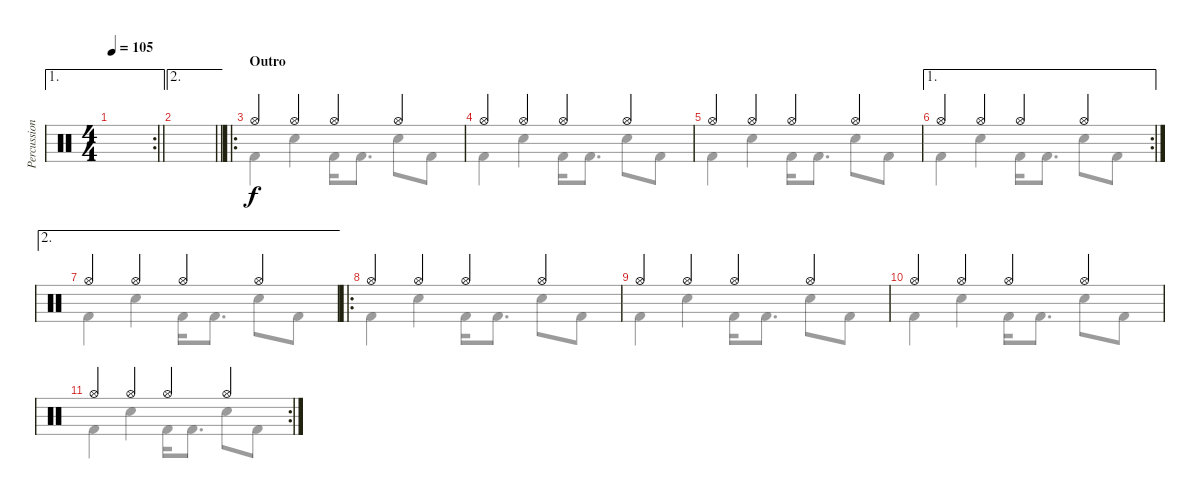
\track ("Percussion" "Percussion") {instrument percussion}
\staff {score}
\articulation defaults
\voice
\ae 1
\rc 2
\ts (4 4)
\tempo 105
\clef neutral
\barLineRight lightlight
\ks c
|
\ae 2
\barLineRight lightlight
|
\ro
\section ("" "Outro")
"Hi-Hat (open)".4 "Hi-Hat (open)".4 "Hi-Hat (open)".4 "Hi-Hat (open)".4 |
"Hi-Hat (open)".4 "Hi-Hat (open)".4 "Hi-Hat (open)".4 "Hi-Hat (open)".4 |
"Hi-Hat (open)".4 "Hi-Hat (open)".4 "Hi-Hat (open)".4 "Hi-Hat (open)".4 |
\ae 1
\rc 2 "Hi-Hat (open)".4 "Hi-Hat (open)".4 "Hi-Hat (open)".4 "Hi-Hat (open)".4
|
\ae 2 "Hi-Hat (open)".4 "Hi-Hat (open)".4 "Hi-Hat (open)".4 "Hi-Hat (open)".4
|
\ro "Hi-Hat (open)".4 "Hi-Hat (open)".4 "Hi-Hat (open)".4 "Hi-Hat (open)".4
|
"Hi-Hat (open)".4 "Hi-Hat (open)".4 "Hi-Hat (open)".4 "Hi-Hat (open)".4 |
"Hi-Hat (open)".4 "Hi-Hat (open)".4 "Hi-Hat (open)".4 "Hi-Hat (open)".4 |
\rc 2 "Hi-Hat (open)".4 "Hi-Hat (open)".4 "Hi-Hat (open)".4 "Hi-Hat (open)".4
|
|
\voice
\clef neutral
\ottava regular
\simile none
\barLineRight lightlight
\ks c
|
\barLineRight lightlight
|
"Kick (hit) 2".4 "Electric Snare (hit)".4 "Kick (hit) 2".16 "Kick (hit) 2".8{d} "Electric Snare (hit)".8 "Kick (hit) 2".8 |
"Kick (hit) 2".4 "Electric Snare (hit)".4 "Kick (hit) 2".16 "Kick (hit) 2".8{d} "Electric Snare (hit)".8 "Kick (hit) 2".8 |
"Kick (hit) 2".4 "Electric Snare (hit)".4 "Kick (hit) 2".16 "Kick (hit) 2".8{d} "Electric Snare (hit)".8 "Kick (hit) 2".8 |
"Kick (hit) 2".4 "Electric Snare (hit)".4 "Kick (hit) 2".16 "Kick (hit) 2".8{d} "Electric Snare (hit)".8 "Kick (hit) 2".8 |
"Kick (hit) 2".4 "Electric Snare (hit)".4 "Kick (hit) 2".16 "Kick (hit) 2".8{d} "Electric Snare (hit)".8 "Kick (hit) 2".8 |
"Kick (hit) 2".4 "Electric Snare (hit)".4 "Kick (hit) 2".16 "Kick (hit) 2".8{d} "Electric Snare (hit)".8 "Kick (hit) 2".8 |
"Kick (hit) 2".4 "Electric Snare (hit)".4 "Kick (hit) 2".16 "Kick (hit) 2".8{d} "Electric Snare (hit)".8 "Kick (hit) 2".8 |
"Kick (hit) 2".4 "Electric Snare (hit)".4 "Kick (hit) 2".16 "Kick (hit) 2".8{d} "Electric Snare (hit)".8 "Kick (hit) 2".8 |
"Kick (hit) 2".4 "Electric Snare (hit)".4 "Kick (hit) 2".16 "Kick (hit) 2".8{d} "Electric Snare (hit)".8 "Kick (hit) 2".8 |
|
